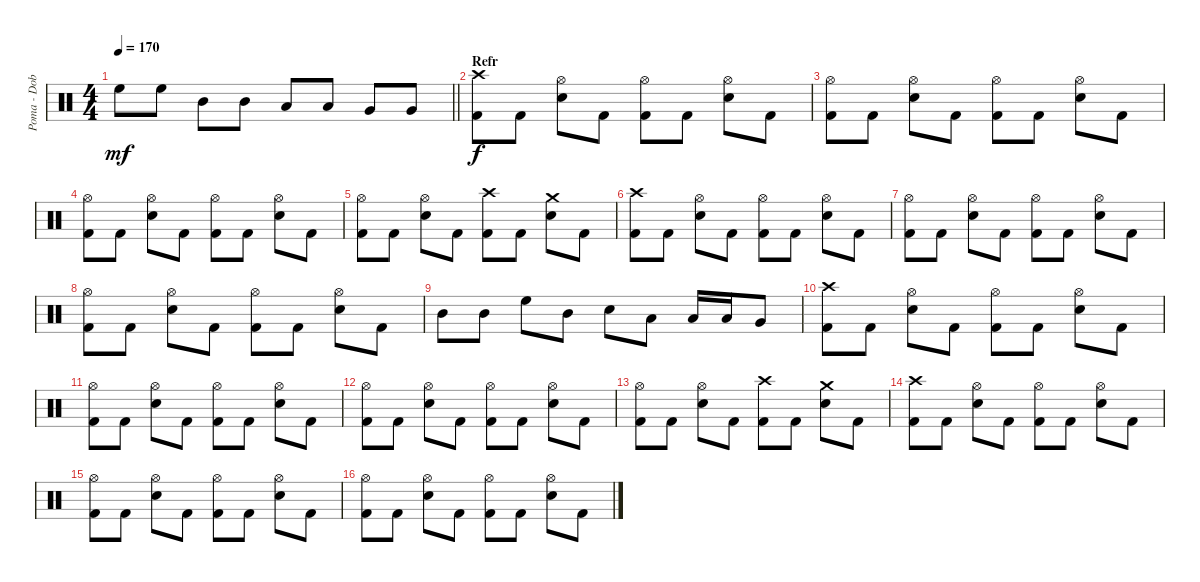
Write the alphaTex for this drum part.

\track ("Poma - Dob" "Poma - Dob") {instrument percussion}
\staff {score}
\articulation defaults
\ts (4 4)
\tempo 170
\clef neutral
\barLineRight lightlight
\ks c "High Floor Tom (hit)".8{dy mf} "High Floor Tom (hit)".8 "Mid Tom (hit)".8 "Mid Tom (hit)".8 "Low Tom (hit)".8 "Low Tom (hit)".8 "Very Low Tom (hit)".8 "Very Low Tom (hit)".8
|
\section ("" "Refr")
("Crash high (hit)" "Kick (hit) 2").8{dy f} "Kick (hit) 2".8 ("Hi-Hat (open)" "Electric Snare (hit)").8 "Kick (hit) 2".8 ("Hi-Hat (open)" "Kick (hit) 2").8 "Kick (hit) 2".8 ("Hi-Hat (open)" "Electric Snare (hit)").8 "Kick (hit) 2".8 |
("Hi-Hat (open)" "Kick (hit) 2").8 "Kick (hit) 2".8 ("Hi-Hat (open)" "Electric Snare (hit)").8 "Kick (hit) 2".8 ("Hi-Hat (open)" "Kick (hit) 2").8 "Kick (hit) 2".8 ("Hi-Hat (open)" "Electric Snare (hit)").8 "Kick (hit) 2".8 |
("Hi-Hat (open)" "Kick (hit) 2").8 "Kick (hit) 2".8 ("Hi-Hat (open)" "Electric Snare (hit)").8 "Kick (hit) 2".8 ("Hi-Hat (open)" "Kick (hit) 2").8 "Kick (hit) 2".8 ("Hi-Hat (open)" "Electric Snare (hit)").8 "Kick (hit) 2".8 |
("Hi-Hat (open)" "Kick (hit) 2").8 "Kick (hit) 2".8 ("Hi-Hat (open)" "Electric Snare (hit)").8 "Kick (hit) 2".8 ("Crash high (hit)" "Kick (hit) 2").8 "Kick (hit) 2".8 ("Crash medium (hit)" "Electric Snare (hit)").8 "Kick (hit) 2".8 |
("Crash high (hit)" "Kick (hit) 2").8 "Kick (hit) 2".8 ("Hi-Hat (open)" "Electric Snare (hit)").8 "Kick (hit) 2".8 ("Hi-Hat (open)" "Kick (hit) 2").8 "Kick (hit) 2".8 ("Hi-Hat (open)" "Electric Snare (hit)").8 "Kick (hit) 2".8 |
("Hi-Hat (open)" "Kick (hit) 2").8 "Kick (hit) 2".8 ("Hi-Hat (open)" "Electric Snare (hit)").8 "Kick (hit) 2".8 ("Hi-Hat (open)" "Kick (hit) 2").8 "Kick (hit) 2".8 ("Hi-Hat (open)" "Electric Snare (hit)").8 "Kick (hit) 2".8 |
("Hi-Hat (open)" "Kick (hit) 2").8 "Kick (hit) 2".8 ("Hi-Hat (open)" "Electric Snare (hit)").8 "Kick (hit) 2".8 ("Hi-Hat (open)" "Kick (hit) 2").8 "Kick (hit) 2".8 ("Hi-Hat (open)" "Electric Snare (hit)").8 "Kick (hit) 2".8 |
"Mid Tom (hit)".8 "Mid Tom (hit)".8 "High Floor Tom (hit)".8 "Mid Tom (hit)".8 "Electric Snare (hit)".8 "Low Tom (hit)".8 "Low Tom (hit)".16 "Low Tom (hit)".16 "Very Low Tom (hit)".8 |
("Crash high (hit)" "Kick (hit) 2").8 "Kick (hit) 2".8 ("Hi-Hat (open)" "Electric Snare (hit)").8 "Kick (hit) 2".8 ("Hi-Hat (open)" "Kick (hit) 2").8 "Kick (hit) 2".8 ("Hi-Hat (open)" "Electric Snare (hit)").8 "Kick (hit) 2".8 |
("Hi-Hat (open)" "Kick (hit) 2").8 "Kick (hit) 2".8 ("Hi-Hat (open)" "Electric Snare (hit)").8 "Kick (hit) 2".8 ("Hi-Hat (open)" "Kick (hit) 2").8 "Kick (hit) 2".8 ("Hi-Hat (open)" "Electric Snare (hit)").8 "Kick (hit) 2".8 |
("Hi-Hat (open)" "Kick (hit) 2").8 "Kick (hit) 2".8 ("Hi-Hat (open)" "Electric Snare (hit)").8 "Kick (hit) 2".8 ("Hi-Hat (open)" "Kick (hit) 2").8 "Kick (hit) 2".8 ("Hi-Hat (open)" "Electric Snare (hit)").8 "Kick (hit) 2".8 |
("Hi-Hat (open)" "Kick (hit) 2").8 "Kick (hit) 2".8 ("Hi-Hat (open)" "Electric Snare (hit)").8 "Kick (hit) 2".8 ("Crash high (hit)" "Kick (hit) 2").8 "Kick (hit) 2".8 ("Crash medium (hit)" "Electric Snare (hit)").8 "Kick (hit) 2".8 |
("Crash high (hit)" "Kick (hit) 2").8 "Kick (hit) 2".8 ("Hi-Hat (open)" "Electric Snare (hit)").8 "Kick (hit) 2".8 ("Hi-Hat (open)" "Kick (hit) 2").8 "Kick (hit) 2".8 ("Hi-Hat (open)" "Electric Snare (hit)").8 "Kick (hit) 2".8 |
("Hi-Hat (open)" "Kick (hit) 2").8 "Kick (hit) 2".8 ("Hi-Hat (open)" "Electric Snare (hit)").8 "Kick (hit) 2".8 ("Hi-Hat (open)" "Kick (hit) 2").8 "Kick (hit) 2".8 ("Hi-Hat (open)" "Electric Snare (hit)").8 "Kick (hit) 2".8 |
("Hi-Hat (open)" "Kick (hit) 2").8 "Kick (hit) 2".8 ("Hi-Hat (open)" "Electric Snare (hit)").8 "Kick (hit) 2".8 ("Hi-Hat (open)" "Kick (hit) 2").8 "Kick (hit) 2".8 ("Hi-Hat (open)" "Electric Snare (hit)").8 "Kick (hit) 2".8
